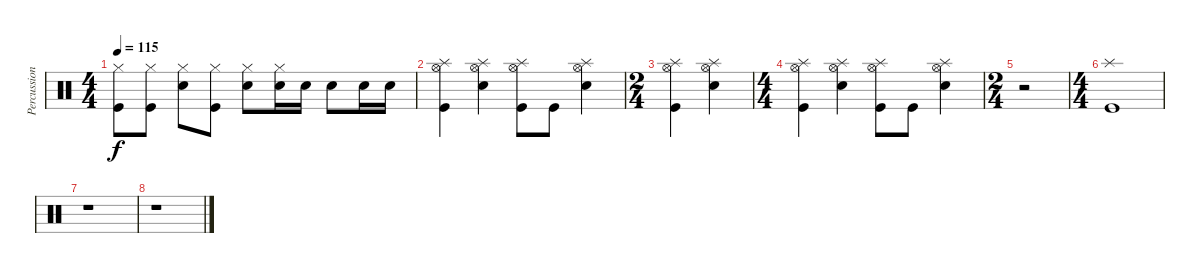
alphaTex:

\track ("Percussion" "Percussion") {instrument percussion}
\staff {score}
\articulation defaults
\ts (4 4)
\tempo 115
\clef neutral
\ks c
("Hi-Hat (closed)" "Kick (hit)").8{dy f} ("Hi-Hat (closed)" "Kick (hit)").8 ("Hi-Hat (closed)" "Snare (hit) 2").8 ("Hi-Hat (closed)" "Kick (hit)").8 ("Hi-Hat (closed)" "Snare (hit) 2").8 ("Hi-Hat (closed)" "Snare (hit) 2").16 "Snare (hit) 2".16 "Snare (hit) 2".8 "Snare (hit) 2".16 "Snare (hit) 2".16 |
("Splash (hit)" "Hi-Hat (open)" "Kick (hit)").4 ("Splash (hit)" "Hi-Hat (open)" "Snare (hit) 2").4 ("Splash (hit)" "Hi-Hat (open)" "Kick (hit)").8 "Kick (hit)".8 ("Splash (hit)" "Hi-Hat (open)" "Snare (hit) 2").4 |
\ts (2 4)
("Splash (hit)" "Hi-Hat (open)" "Kick (hit)").4 ("Splash (hit)" "Hi-Hat (open)" "Snare (hit) 2").4 |
\ts (4 4)
("Splash (hit)" "Hi-Hat (open)" "Kick (hit)").4 ("Splash (hit)" "Hi-Hat (open)" "Snare (hit) 2").4 ("Splash (hit)" "Hi-Hat (open)" "Kick (hit)").8 "Kick (hit)".8 ("Splash (hit)" "Hi-Hat (open)" "Snare (hit) 2").4 |
\ts (2 4)
r.2 |
\ts (4 4)
("Splash (hit)" "Kick (hit)").1 |
r.1 |
r.1
